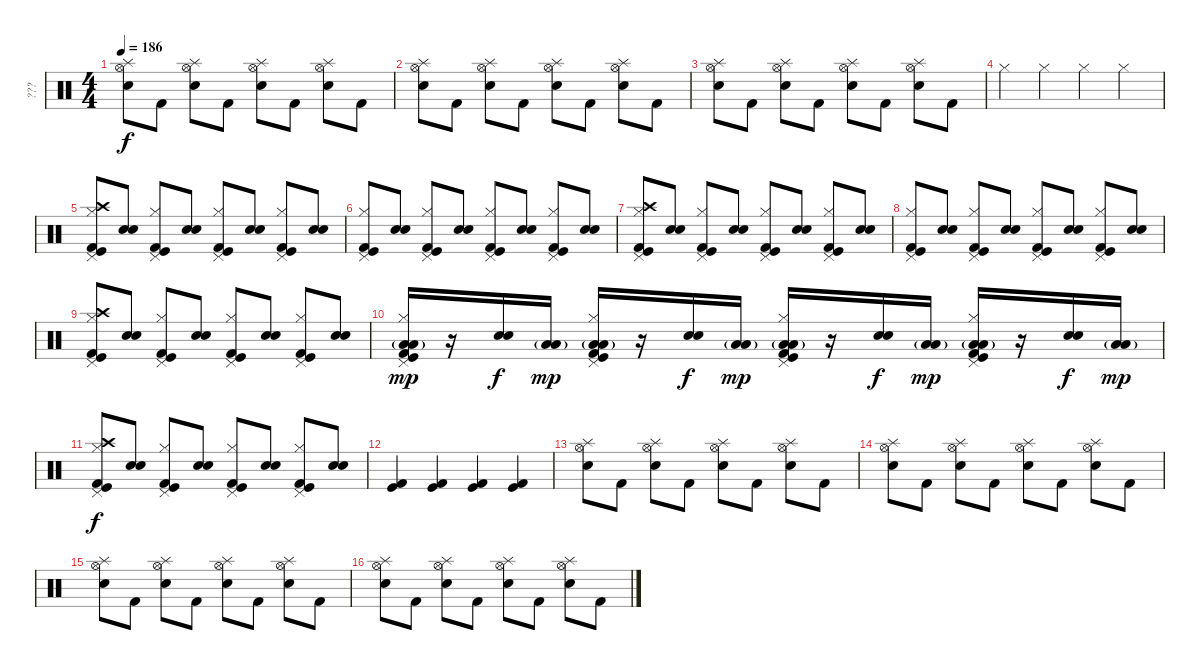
\track ("???" "???") {instrument percussion}
\staff {score}
\articulation defaults
\ts (4 4)
\tempo 186
\clef neutral
\ks c
("Hi-Hat (open)" "Splash (hit)" "Snare (hit) 2").8{dy f volume 9} "Kick (hit) 2".8 ("Hi-Hat (open)" "Splash (hit)" "Snare (hit) 2").8 "Kick (hit) 2".8 ("Hi-Hat (open)" "Splash (hit)" "Snare (hit) 2").8 "Kick (hit) 2".8 ("Hi-Hat (open)" "Splash (hit)" "Snare (hit) 2").8 "Kick (hit) 2".8 |
("Hi-Hat (open)" "Splash (hit)" "Snare (hit) 2").8{volume 9} "Kick (hit) 2".8 ("Hi-Hat (open)" "Splash (hit)" "Snare (hit) 2").8 "Kick (hit) 2".8 ("Hi-Hat (open)" "Splash (hit)" "Snare (hit) 2").8 "Kick (hit) 2".8 ("Hi-Hat (open)" "Splash (hit)" "Snare (hit) 2").8 "Kick (hit) 2".8 |
("Hi-Hat (open)" "Splash (hit)" "Snare (hit) 2").8{volume 9} "Kick (hit) 2".8 ("Hi-Hat (open)" "Splash (hit)" "Snare (hit) 2").8 "Kick (hit) 2".8 ("Hi-Hat (open)" "Splash (hit)" "Snare (hit) 2").8 "Kick (hit) 2".8 ("Hi-Hat (open)" "Splash (hit)" "Snare (hit) 2").8 "Kick (hit) 2".8 |
"Hi-Hat (closed)".4 "Hi-Hat (closed)".4 "Hi-Hat (closed)".4 "Hi-Hat (closed)".4 |
("Hi-Hat (closed)" "Pedal Hi-Hat (hit)" "Crash high (hit)" "Kick (hit)" "Kick (hit) 2").8{volume 9} ("Electric Snare (hit)" "Snare (hit) 2").8 ("Hi-Hat (closed)" "Pedal Hi-Hat (hit)" "Kick (hit)" "Kick (hit) 2").8 ("Electric Snare (hit)" "Snare (hit) 2").8 ("Hi-Hat (closed)" "Pedal Hi-Hat (hit)" "Kick (hit)" "Kick (hit) 2").8 ("Electric Snare (hit)" "Snare (hit) 2").8 ("Hi-Hat (closed)" "Pedal Hi-Hat (hit)" "Kick (hit)" "Kick (hit) 2").8 ("Electric Snare (hit)" "Snare (hit) 2").8 |
("Hi-Hat (closed)" "Pedal Hi-Hat (hit)" "Kick (hit)" "Kick (hit) 2").8 ("Electric Snare (hit)" "Snare (hit) 2").8 ("Hi-Hat (closed)" "Pedal Hi-Hat (hit)" "Kick (hit)" "Kick (hit) 2").8 ("Electric Snare (hit)" "Snare (hit) 2").8 ("Hi-Hat (closed)" "Pedal Hi-Hat (hit)" "Kick (hit)" "Kick (hit) 2").8 ("Electric Snare (hit)" "Snare (hit) 2").8 ("Hi-Hat (closed)" "Pedal Hi-Hat (hit)" "Kick (hit)" "Kick (hit) 2").8 ("Electric Snare (hit)" "Snare (hit) 2").8 |
("Hi-Hat (closed)" "Pedal Hi-Hat (hit)" "Crash high (hit)" "Kick (hit)" "Kick (hit) 2").8{volume 9} ("Electric Snare (hit)" "Snare (hit) 2").8 ("Hi-Hat (closed)" "Pedal Hi-Hat (hit)" "Kick (hit)" "Kick (hit) 2").8 ("Electric Snare (hit)" "Snare (hit) 2").8 ("Hi-Hat (closed)" "Pedal Hi-Hat (hit)" "Kick (hit)" "Kick (hit) 2").8 ("Electric Snare (hit)" "Snare (hit) 2").8 ("Hi-Hat (closed)" "Pedal Hi-Hat (hit)" "Kick (hit)" "Kick (hit) 2").8 ("Electric Snare (hit)" "Snare (hit) 2").8 |
("Hi-Hat (closed)" "Pedal Hi-Hat (hit)" "Kick (hit)" "Kick (hit) 2").8 ("Electric Snare (hit)" "Snare (hit) 2").8 ("Hi-Hat (closed)" "Pedal Hi-Hat (hit)" "Kick (hit)" "Kick (hit) 2").8 ("Electric Snare (hit)" "Snare (hit) 2").8 ("Hi-Hat (closed)" "Pedal Hi-Hat (hit)" "Kick (hit)" "Kick (hit) 2").8 ("Electric Snare (hit)" "Snare (hit) 2").8 ("Hi-Hat (closed)" "Pedal Hi-Hat (hit)" "Kick (hit)" "Kick (hit) 2").8 ("Electric Snare (hit)" "Snare (hit) 2").8 |
("Hi-Hat (closed)" "Pedal Hi-Hat (hit)" "Crash high (hit)" "Kick (hit)" "Kick (hit) 2").8{volume 9} ("Electric Snare (hit)" "Snare (hit) 2").8 ("Hi-Hat (closed)" "Pedal Hi-Hat (hit)" "Kick (hit)" "Kick (hit) 2").8 ("Electric Snare (hit)" "Snare (hit) 2").8 ("Hi-Hat (closed)" "Pedal Hi-Hat (hit)" "Kick (hit)" "Kick (hit) 2").8 ("Electric Snare (hit)" "Snare (hit) 2").8 ("Hi-Hat (closed)" "Pedal Hi-Hat (hit)" "Kick (hit)" "Kick (hit) 2").8 ("Electric Snare (hit)" "Snare (hit) 2").8 |
("Hi-Hat (closed)" "Pedal Hi-Hat (hit)" "Low Floor Tom (hit)" "Low Floor Tom (hit)"{g} "Kick (hit)" "Kick (hit) 2").16{dy mp} r.16 ("Electric Snare (hit)" "Snare (hit) 2").16{dy f} ("Low Floor Tom (hit)" "Low Floor Tom (hit)"{g}).16{dy mp} ("Hi-Hat (closed)" "Pedal Hi-Hat (hit)" "Low Floor Tom (hit)" "Low Floor Tom (hit)"{g} "Kick (hit)" "Kick (hit) 2").16 r.16 ("Electric Snare (hit)" "Snare (hit) 2").16{dy f} ("Low Floor Tom (hit)" "Low Floor Tom (hit)"{g}).16{dy mp} ("Hi-Hat (closed)" "Pedal Hi-Hat (hit)" "Low Floor Tom (hit)" "Low Floor Tom (hit)"{g} "Kick (hit)" "Kick (hit) 2").16 r.16 ("Electric Snare (hit)" "Snare (hit) 2").16{dy f} ("Low Floor Tom (hit)" "Low Floor Tom (hit)"{g}).16{dy mp} ("Hi-Hat (closed)" "Pedal Hi-Hat (hit)" "Low Floor Tom (hit)" "Low Floor Tom (hit)"{g} "Kick (hit)" "Kick (hit) 2").16 r.16 ("Electric Snare (hit)" "Snare (hit) 2").16{dy f} ("Low Floor Tom (hit)" "Low Floor Tom (hit)"{g}).16{dy mp} |
("Hi-Hat (closed)" "Pedal Hi-Hat (hit)" "Crash high (hit)" "Kick (hit)" "Kick (hit) 2").8{dy f volume 9} ("Electric Snare (hit)" "Snare (hit) 2").8 ("Hi-Hat (closed)" "Pedal Hi-Hat (hit)" "Kick (hit)" "Kick (hit) 2").8 ("Electric Snare (hit)" "Snare (hit) 2").8 ("Hi-Hat (closed)" "Pedal Hi-Hat (hit)" "Kick (hit)" "Kick (hit) 2").8 ("Electric Snare (hit)" "Snare (hit) 2").8 ("Hi-Hat (closed)" "Pedal Hi-Hat (hit)" "Kick (hit)" "Kick (hit) 2").8 ("Electric Snare (hit)" "Snare (hit) 2").8 |
("Kick (hit)" "Kick (hit) 2").4 ("Kick (hit)" "Kick (hit) 2").4 ("Kick (hit)" "Kick (hit) 2").4 ("Kick (hit)" "Kick (hit) 2").4 |
("Hi-Hat (open)" "Splash (hit)" "Snare (hit) 2").8{volume 9} "Kick (hit) 2".8 ("Hi-Hat (open)" "Splash (hit)" "Snare (hit) 2").8 "Kick (hit) 2".8 ("Hi-Hat (open)" "Splash (hit)" "Snare (hit) 2").8 "Kick (hit) 2".8 ("Hi-Hat (open)" "Splash (hit)" "Snare (hit) 2").8 "Kick (hit) 2".8 |
("Hi-Hat (open)" "Splash (hit)" "Snare (hit) 2").8{volume 9} "Kick (hit) 2".8 ("Hi-Hat (open)" "Splash (hit)" "Snare (hit) 2").8 "Kick (hit) 2".8 ("Hi-Hat (open)" "Splash (hit)" "Snare (hit) 2").8 "Kick (hit) 2".8 ("Hi-Hat (open)" "Splash (hit)" "Snare (hit) 2").8 "Kick (hit) 2".8 |
("Hi-Hat (open)" "Splash (hit)" "Snare (hit) 2").8{volume 9} "Kick (hit) 2".8 ("Hi-Hat (open)" "Splash (hit)" "Snare (hit) 2").8 "Kick (hit) 2".8 ("Hi-Hat (open)" "Splash (hit)" "Snare (hit) 2").8 "Kick (hit) 2".8 ("Hi-Hat (open)" "Splash (hit)" "Snare (hit) 2").8 "Kick (hit) 2".8 |
("Hi-Hat (open)" "Splash (hit)" "Snare (hit) 2").8{volume 9} "Kick (hit) 2".8 ("Hi-Hat (open)" "Splash (hit)" "Snare (hit) 2").8 "Kick (hit) 2".8 ("Hi-Hat (open)" "Splash (hit)" "Snare (hit) 2").8 "Kick (hit) 2".8 ("Hi-Hat (open)" "Splash (hit)" "Snare (hit) 2").8 "Kick (hit) 2".8
